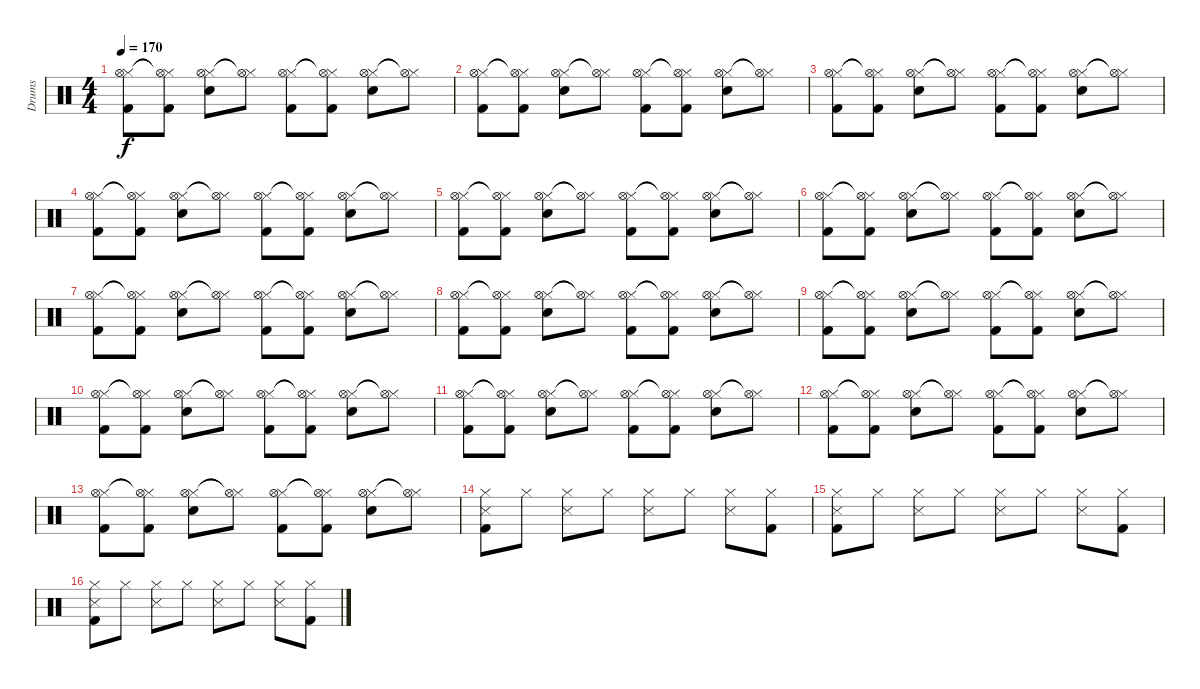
\track ("Drums" "Drums") {instrument percussion}
\staff {score}
\articulation defaults
\ts (4 4)
\tempo 170
\clef neutral
\ks c
("Hi-Hat (closed)" "Hi-Hat (open)" "Kick (hit) 2").8{dy f} ("Hi-Hat (closed)"{t} "Hi-Hat (open)"{t} "Kick (hit) 2").8 ("Hi-Hat (closed)" "Hi-Hat (open)" "Snare (hit) 2").8 ("Hi-Hat (closed)"{t} "Hi-Hat (open)"{t}).8 ("Hi-Hat (closed)" "Hi-Hat (open)" "Kick (hit) 2").8 ("Hi-Hat (closed)"{t} "Hi-Hat (open)"{t} "Kick (hit) 2").8 ("Hi-Hat (closed)" "Hi-Hat (open)" "Snare (hit) 2").8 ("Hi-Hat (closed)"{t} "Hi-Hat (open)"{t}).8 |
("Hi-Hat (closed)" "Hi-Hat (open)" "Kick (hit) 2").8 ("Hi-Hat (closed)"{t} "Hi-Hat (open)"{t} "Kick (hit) 2").8 ("Hi-Hat (closed)" "Hi-Hat (open)" "Snare (hit) 2").8 ("Hi-Hat (closed)"{t} "Hi-Hat (open)"{t}).8 ("Hi-Hat (closed)" "Hi-Hat (open)" "Kick (hit) 2").8 ("Hi-Hat (closed)"{t} "Hi-Hat (open)"{t} "Kick (hit) 2").8 ("Hi-Hat (closed)" "Hi-Hat (open)" "Snare (hit) 2").8 ("Hi-Hat (closed)"{t} "Hi-Hat (open)"{t}).8 |
("Hi-Hat (closed)" "Hi-Hat (open)" "Kick (hit) 2").8 ("Hi-Hat (closed)"{t} "Hi-Hat (open)"{t} "Kick (hit) 2").8 ("Hi-Hat (closed)" "Hi-Hat (open)" "Snare (hit) 2").8 ("Hi-Hat (closed)"{t} "Hi-Hat (open)"{t}).8 ("Hi-Hat (closed)" "Hi-Hat (open)" "Kick (hit) 2").8 ("Hi-Hat (closed)"{t} "Hi-Hat (open)"{t} "Kick (hit) 2").8 ("Hi-Hat (closed)" "Hi-Hat (open)" "Snare (hit) 2").8 ("Hi-Hat (closed)"{t} "Hi-Hat (open)"{t}).8 |
("Hi-Hat (closed)" "Hi-Hat (open)" "Kick (hit) 2").8 ("Hi-Hat (closed)"{t} "Hi-Hat (open)"{t} "Kick (hit) 2").8 ("Hi-Hat (closed)" "Hi-Hat (open)" "Snare (hit) 2").8 ("Hi-Hat (closed)"{t} "Hi-Hat (open)"{t}).8 ("Hi-Hat (closed)" "Hi-Hat (open)" "Kick (hit) 2").8 ("Hi-Hat (closed)"{t} "Hi-Hat (open)"{t} "Kick (hit) 2").8 ("Hi-Hat (closed)" "Hi-Hat (open)" "Snare (hit) 2").8 ("Hi-Hat (closed)"{t} "Hi-Hat (open)"{t}).8 |
("Hi-Hat (closed)" "Hi-Hat (open)" "Kick (hit) 2").8 ("Hi-Hat (closed)"{t} "Hi-Hat (open)"{t} "Kick (hit) 2").8 ("Hi-Hat (closed)" "Hi-Hat (open)" "Snare (hit) 2").8 ("Hi-Hat (closed)"{t} "Hi-Hat (open)"{t}).8 ("Hi-Hat (closed)" "Hi-Hat (open)" "Kick (hit) 2").8 ("Hi-Hat (closed)"{t} "Hi-Hat (open)"{t} "Kick (hit) 2").8 ("Hi-Hat (closed)" "Hi-Hat (open)" "Snare (hit) 2").8 ("Hi-Hat (closed)"{t} "Hi-Hat (open)"{t}).8 |
("Hi-Hat (closed)" "Hi-Hat (open)" "Kick (hit) 2").8 ("Hi-Hat (closed)"{t} "Hi-Hat (open)"{t} "Kick (hit) 2").8 ("Hi-Hat (closed)" "Hi-Hat (open)" "Snare (hit) 2").8 ("Hi-Hat (closed)"{t} "Hi-Hat (open)"{t}).8 ("Hi-Hat (closed)" "Hi-Hat (open)" "Kick (hit) 2").8 ("Hi-Hat (closed)"{t} "Hi-Hat (open)"{t} "Kick (hit) 2").8 ("Hi-Hat (closed)" "Hi-Hat (open)" "Snare (hit) 2").8 ("Hi-Hat (closed)"{t} "Hi-Hat (open)"{t}).8 |
("Hi-Hat (closed)" "Hi-Hat (open)" "Kick (hit) 2").8 ("Hi-Hat (closed)"{t} "Hi-Hat (open)"{t} "Kick (hit) 2").8 ("Hi-Hat (closed)" "Hi-Hat (open)" "Snare (hit) 2").8 ("Hi-Hat (closed)"{t} "Hi-Hat (open)"{t}).8 ("Hi-Hat (closed)" "Hi-Hat (open)" "Kick (hit) 2").8 ("Hi-Hat (closed)"{t} "Hi-Hat (open)"{t} "Kick (hit) 2").8 ("Hi-Hat (closed)" "Hi-Hat (open)" "Snare (hit) 2").8 ("Hi-Hat (closed)"{t} "Hi-Hat (open)"{t}).8 |
("Hi-Hat (closed)" "Hi-Hat (open)" "Kick (hit) 2").8 ("Hi-Hat (closed)"{t} "Hi-Hat (open)"{t} "Kick (hit) 2").8 ("Hi-Hat (closed)" "Hi-Hat (open)" "Snare (hit) 2").8 ("Hi-Hat (closed)"{t} "Hi-Hat (open)"{t}).8 ("Hi-Hat (closed)" "Hi-Hat (open)" "Kick (hit) 2").8 ("Hi-Hat (closed)"{t} "Hi-Hat (open)"{t} "Kick (hit) 2").8 ("Hi-Hat (closed)" "Hi-Hat (open)" "Snare (hit) 2").8 ("Hi-Hat (closed)"{t} "Hi-Hat (open)"{t}).8 |
("Hi-Hat (closed)" "Hi-Hat (open)" "Kick (hit) 2").8 ("Hi-Hat (closed)"{t} "Hi-Hat (open)"{t} "Kick (hit) 2").8 ("Hi-Hat (closed)" "Hi-Hat (open)" "Snare (hit) 2").8 ("Hi-Hat (closed)"{t} "Hi-Hat (open)"{t}).8 ("Hi-Hat (closed)" "Hi-Hat (open)" "Kick (hit) 2").8 ("Hi-Hat (closed)"{t} "Hi-Hat (open)"{t} "Kick (hit) 2").8 ("Hi-Hat (closed)" "Hi-Hat (open)" "Snare (hit) 2").8 ("Hi-Hat (closed)"{t} "Hi-Hat (open)"{t}).8 |
("Hi-Hat (closed)" "Hi-Hat (open)" "Kick (hit) 2").8 ("Hi-Hat (closed)"{t} "Hi-Hat (open)"{t} "Kick (hit) 2").8 ("Hi-Hat (closed)" "Hi-Hat (open)" "Snare (hit) 2").8 ("Hi-Hat (closed)"{t} "Hi-Hat (open)"{t}).8 ("Hi-Hat (closed)" "Hi-Hat (open)" "Kick (hit) 2").8 ("Hi-Hat (closed)"{t} "Hi-Hat (open)"{t} "Kick (hit) 2").8 ("Hi-Hat (closed)" "Hi-Hat (open)" "Snare (hit) 2").8 ("Hi-Hat (closed)"{t} "Hi-Hat (open)"{t}).8 |
("Hi-Hat (closed)" "Hi-Hat (open)" "Kick (hit) 2").8 ("Hi-Hat (closed)"{t} "Hi-Hat (open)"{t} "Kick (hit) 2").8 ("Hi-Hat (closed)" "Hi-Hat (open)" "Snare (hit) 2").8 ("Hi-Hat (closed)"{t} "Hi-Hat (open)"{t}).8 ("Hi-Hat (closed)" "Hi-Hat (open)" "Kick (hit) 2").8 ("Hi-Hat (closed)"{t} "Hi-Hat (open)"{t} "Kick (hit) 2").8 ("Hi-Hat (closed)" "Hi-Hat (open)" "Snare (hit) 2").8 ("Hi-Hat (closed)"{t} "Hi-Hat (open)"{t}).8 |
("Hi-Hat (closed)" "Hi-Hat (open)" "Kick (hit) 2").8 ("Hi-Hat (closed)"{t} "Hi-Hat (open)"{t} "Kick (hit) 2").8 ("Hi-Hat (closed)" "Hi-Hat (open)" "Snare (hit) 2").8 ("Hi-Hat (closed)"{t} "Hi-Hat (open)"{t}).8 ("Hi-Hat (closed)" "Hi-Hat (open)" "Kick (hit) 2").8 ("Hi-Hat (closed)"{t} "Hi-Hat (open)"{t} "Kick (hit) 2").8 ("Hi-Hat (closed)" "Hi-Hat (open)" "Snare (hit) 2").8 ("Hi-Hat (closed)"{t} "Hi-Hat (open)"{t}).8 |
("Hi-Hat (closed)" "Hi-Hat (open)" "Kick (hit) 2").8 ("Hi-Hat (closed)"{t} "Hi-Hat (open)"{t} "Kick (hit) 2").8 ("Hi-Hat (closed)" "Hi-Hat (open)" "Snare (hit) 2").8 ("Hi-Hat (closed)"{t} "Hi-Hat (open)"{t}).8 ("Hi-Hat (closed)" "Hi-Hat (open)" "Kick (hit) 2").8 ("Hi-Hat (closed)"{t} "Hi-Hat (open)"{t} "Kick (hit) 2").8 ("Hi-Hat (closed)" "Hi-Hat (open)" "Snare (hit) 2").8 ("Hi-Hat (closed)"{t} "Hi-Hat (open)"{t}).8 |
("Hi-Hat (closed)" "Snare (side stick) 3" "Kick (hit) 2").8 "Hi-Hat (closed)".8 ("Hi-Hat (closed)" "Snare (side stick) 3").8 "Hi-Hat (closed)".8 ("Hi-Hat (closed)" "Snare (side stick) 3").8 "Hi-Hat (closed)".8 ("Hi-Hat (closed)" "Snare (side stick) 3").8 ("Hi-Hat (closed)" "Kick (hit) 2").8 |
("Hi-Hat (closed)" "Snare (side stick) 3" "Kick (hit) 2").8 "Hi-Hat (closed)".8 ("Hi-Hat (closed)" "Snare (side stick) 3").8 "Hi-Hat (closed)".8 ("Hi-Hat (closed)" "Snare (side stick) 3").8 "Hi-Hat (closed)".8 ("Hi-Hat (closed)" "Snare (side stick) 3").8 ("Hi-Hat (closed)" "Kick (hit) 2").8 |
("Hi-Hat (closed)" "Snare (side stick) 3" "Kick (hit) 2").8 "Hi-Hat (closed)".8 ("Hi-Hat (closed)" "Snare (side stick) 3").8 "Hi-Hat (closed)".8 ("Hi-Hat (closed)" "Snare (side stick) 3").8 "Hi-Hat (closed)".8 ("Hi-Hat (closed)" "Snare (side stick) 3").8 ("Hi-Hat (closed)" "Kick (hit) 2").8
